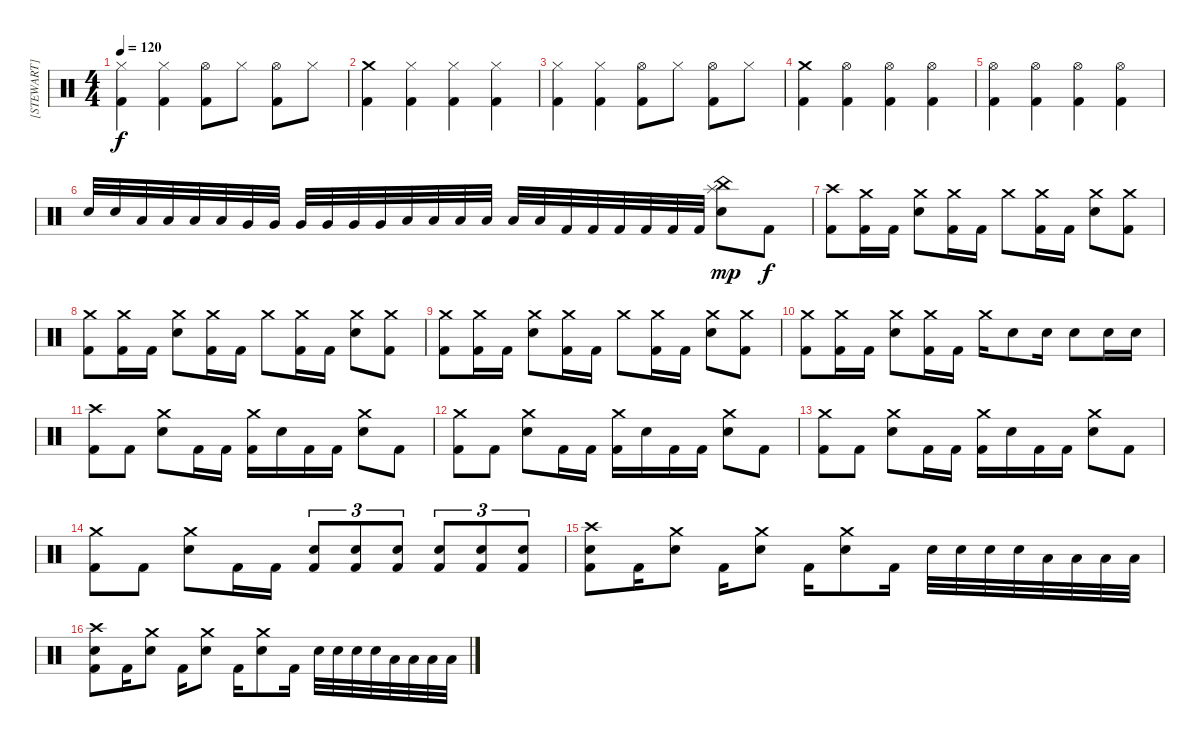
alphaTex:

\track ("[STEWART]" "[STEWART]") {instrument percussion}
\staff {score}
\articulation defaults
\ts (4 4)
\tempo 120
\clef neutral
\ks c
("Hi-Hat (closed)" "Kick (hit) 2").4{dy f} ("Hi-Hat (closed)" "Kick (hit) 2").4 ("Hi-Hat (open)" "Kick (hit) 2").8 "Hi-Hat (closed)".8 ("Hi-Hat (open)" "Kick (hit) 2").8 "Hi-Hat (closed)".8 |
("Crash medium (hit)" "Kick (hit) 2").4 ("Hi-Hat (closed)" "Kick (hit) 2").4 ("Hi-Hat (closed)" "Kick (hit) 2").4 ("Hi-Hat (closed)" "Kick (hit) 2").4 |
("Hi-Hat (closed)" "Kick (hit) 2").4 ("Hi-Hat (closed)" "Kick (hit) 2").4 ("Hi-Hat (open)" "Kick (hit) 2").8 "Hi-Hat (closed)".8 ("Hi-Hat (open)" "Kick (hit) 2").8 "Hi-Hat (closed)".8 |
("Crash medium (hit)" "Kick (hit) 2").4 ("Hi-Hat (open)" "Kick (hit) 2").4 ("Hi-Hat (open)" "Kick (hit) 2").4 ("Hi-Hat (open)" "Kick (hit) 2").4 |
("Hi-Hat (open)" "Kick (hit) 2").4 ("Hi-Hat (open)" "Kick (hit) 2").4 ("Hi-Hat (open)" "Kick (hit) 2").4 ("Hi-Hat (open)" "Kick (hit) 2").4 |
"Electric Snare (hit)".32 "Electric Snare (hit)".32 "Low Tom (hit)".32 "Low Tom (hit)".32 "Low Tom (hit)".32 "Low Tom (hit)".32 "Very Low Tom (hit)".32 "Very Low Tom (hit)".32 "Very Low Tom (hit)".32 "Very Low Tom (hit)".32 "Very Low Tom (hit)".32 "Very Low Tom (hit)".32 "Low Floor Tom (hit)".32 "Low Floor Tom (hit)".32 "Low Floor Tom (hit)".32 "Low Floor Tom (hit)".32 "Low Floor Tom (hit)".32 "Low Floor Tom (hit)".32 "Kick (hit) 2".32 "Kick (hit) 2".32 "Kick (hit) 2".32 "Kick (hit) 2".32 "Kick (hit) 2".32 "Kick (hit) 2".32 ("Splash (hit)" "China (hit)" "Electric Snare (hit)").8{dy mp} "Kick (hit) 2".8{dy f} |
("Crash high (hit)" "Kick (hit) 2").8 ("Crash medium (hit)" "Kick (hit) 2").16 "Kick (hit) 2".16 ("Crash medium (hit)" "Electric Snare (hit)").8 ("Crash medium (hit)" "Kick (hit) 2").16 "Kick (hit) 2".16 "Crash medium (hit)".8 ("Crash medium (hit)" "Kick (hit) 2").16 "Kick (hit) 2".16 ("Crash medium (hit)" "Electric Snare (hit)").8 ("Crash medium (hit)" "Kick (hit) 2").8 |
("Crash medium (hit)" "Kick (hit) 2").8 ("Crash medium (hit)" "Kick (hit) 2").16 "Kick (hit) 2".16 ("Crash medium (hit)" "Electric Snare (hit)").8 ("Crash medium (hit)" "Kick (hit) 2").16 "Kick (hit) 2".16 "Crash medium (hit)".8 ("Crash medium (hit)" "Kick (hit) 2").16 "Kick (hit) 2".16 ("Crash medium (hit)" "Electric Snare (hit)").8 ("Crash medium (hit)" "Kick (hit) 2").8 |
("Crash medium (hit)" "Kick (hit) 2").8 ("Crash medium (hit)" "Kick (hit) 2").16 "Kick (hit) 2".16 ("Crash medium (hit)" "Electric Snare (hit)").8 ("Crash medium (hit)" "Kick (hit) 2").16 "Kick (hit) 2".16 "Crash medium (hit)".8 ("Crash medium (hit)" "Kick (hit) 2").16 "Kick (hit) 2".16 ("Crash medium (hit)" "Electric Snare (hit)").8 ("Crash medium (hit)" "Kick (hit) 2").8 |
("Crash medium (hit)" "Kick (hit) 2").8 ("Crash medium (hit)" "Kick (hit) 2").16 "Kick (hit) 2".16 ("Crash medium (hit)" "Electric Snare (hit)").8 ("Crash medium (hit)" "Kick (hit) 2").16 "Kick (hit) 2".16 "Crash medium (hit)".16 "Electric Snare (hit)".8 "Electric Snare (hit)".16 "Electric Snare (hit)".8 "Electric Snare (hit)".16 "Electric Snare (hit)".16 |
("Crash high (hit)" "Kick (hit) 2").8 "Kick (hit) 2".8 ("Crash medium (hit)" "Electric Snare (hit)").8 "Kick (hit) 2".16 "Kick (hit) 2".16 ("Crash medium (hit)" "Kick (hit) 2").16 "Electric Snare (hit)".16 "Kick (hit) 2".16 "Kick (hit) 2".16 ("Crash medium (hit)" "Electric Snare (hit)").8 "Kick (hit) 2".8 |
("Crash medium (hit)" "Kick (hit) 2").8 "Kick (hit) 2".8 ("Crash medium (hit)" "Electric Snare (hit)").8 "Kick (hit) 2".16 "Kick (hit) 2".16 ("Crash medium (hit)" "Kick (hit) 2").16 "Electric Snare (hit)".16 "Kick (hit) 2".16 "Kick (hit) 2".16 ("Crash medium (hit)" "Electric Snare (hit)").8 "Kick (hit) 2".8 |
("Crash medium (hit)" "Kick (hit) 2").8 "Kick (hit) 2".8 ("Crash medium (hit)" "Electric Snare (hit)").8 "Kick (hit) 2".16 "Kick (hit) 2".16 ("Crash medium (hit)" "Kick (hit) 2").16 "Electric Snare (hit)".16 "Kick (hit) 2".16 "Kick (hit) 2".16 ("Crash medium (hit)" "Electric Snare (hit)").8 "Kick (hit) 2".8 |
("Crash medium (hit)" "Kick (hit) 2").8 "Kick (hit) 2".8 ("Crash medium (hit)" "Electric Snare (hit)").8 "Kick (hit) 2".16 "Kick (hit) 2".16 ("Electric Snare (hit)" "Kick (hit) 2").8{tu (3 2)} ("Electric Snare (hit)" "Kick (hit) 2").8{tu (3 2)} ("Electric Snare (hit)" "Kick (hit) 2").8{tu (3 2)} ("Electric Snare (hit)" "Kick (hit) 2").8{tu (3 2)} ("Electric Snare (hit)" "Kick (hit) 2").8{tu (3 2)} ("Electric Snare (hit)" "Kick (hit) 2").8{tu (3 2)} |
("Crash high (hit)" "Electric Snare (hit)" "Kick (hit) 2").8 "Kick (hit) 2".16 ("Crash medium (hit)" "Electric Snare (hit)").8 "Kick (hit) 2".16 ("Crash medium (hit)" "Electric Snare (hit)").8 "Kick (hit) 2".16 ("Crash medium (hit)" "Electric Snare (hit)").8 "Kick (hit) 2".16 "Electric Snare (hit)".32 "Electric Snare (hit)".32 "Electric Snare (hit)".32 "Electric Snare (hit)".32 "Low Tom (hit)".32 "Low Tom (hit)".32 "Low Tom (hit)".32 "Low Tom (hit)".32 |
("Crash high (hit)" "Electric Snare (hit)" "Kick (hit) 2").8 "Kick (hit) 2".16 ("Crash medium (hit)" "Electric Snare (hit)").8 "Kick (hit) 2".16 ("Crash medium (hit)" "Electric Snare (hit)").8 "Kick (hit) 2".16 ("Crash medium (hit)" "Electric Snare (hit)").8 "Kick (hit) 2".16 "Electric Snare (hit)".32 "Electric Snare (hit)".32 "Electric Snare (hit)".32 "Electric Snare (hit)".32 "Low Tom (hit)".32 "Low Tom (hit)".32 "Low Tom (hit)".32 "Low Tom (hit)".32
